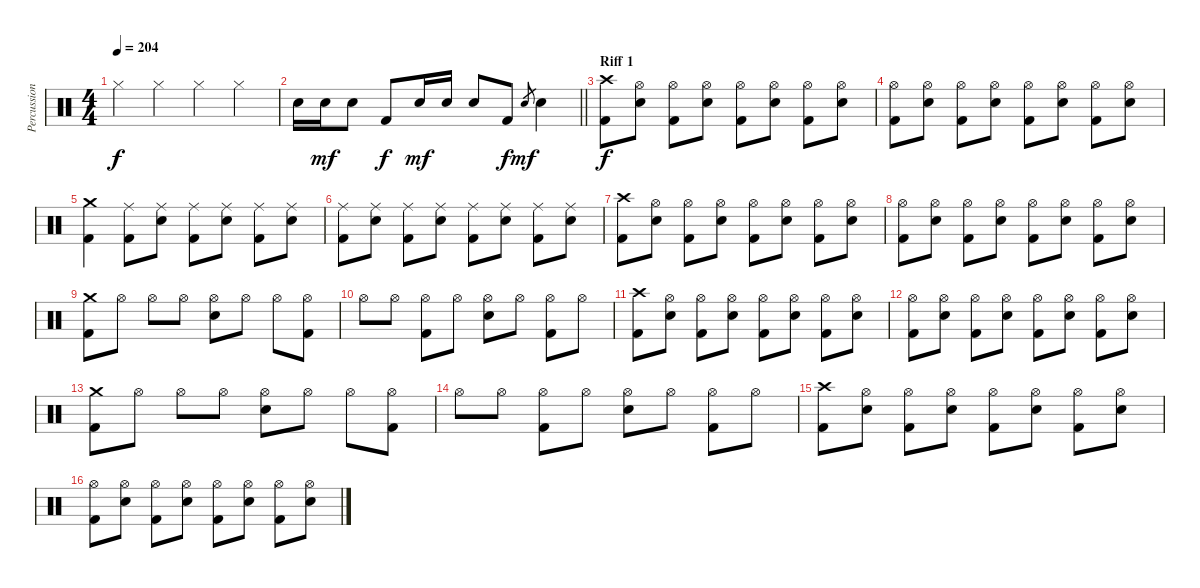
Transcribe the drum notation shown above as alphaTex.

\track ("Percussions" "Percussion") {instrument percussion}
\staff {score}
\articulation defaults
\ts (4 4)
\tempo 204
\clef neutral
\ks c "Hi-Hat (closed)".4{dy f} "Hi-Hat (closed)".4 "Hi-Hat (closed)".4 "Hi-Hat (closed)".4
|
\barLineRight lightlight "Snare (hit) 2".16 "Snare (hit) 2".16{dy mf} "Snare (hit) 2".8 "Kick (hit) 2".8{dy f} "Snare (hit) 2".16{dy mf} "Snare (hit) 2".16 "Snare (hit) 2".8 "Kick (hit) 2".8{dy f} "Snare (hit) 2".8{gr dy mf} "Snare (hit) 2".4
|
\section ("" "Riff 1")
("Crash high (hit)" "Kick (hit) 2").8{dy f} ("Hi-Hat (open)" "Electric Snare (hit)").8 ("Hi-Hat (open)" "Kick (hit) 2").8 ("Hi-Hat (open)" "Electric Snare (hit)").8 ("Hi-Hat (open)" "Kick (hit) 2").8 ("Hi-Hat (open)" "Electric Snare (hit)").8 ("Hi-Hat (open)" "Kick (hit) 2").8 ("Hi-Hat (open)" "Electric Snare (hit)").8 |
("Hi-Hat (open)" "Kick (hit) 2").8 ("Hi-Hat (open)" "Electric Snare (hit)").8 ("Hi-Hat (open)" "Kick (hit) 2").8 ("Hi-Hat (open)" "Electric Snare (hit)").8 ("Hi-Hat (open)" "Kick (hit) 2").8 ("Hi-Hat (open)" "Electric Snare (hit)").8 ("Hi-Hat (open)" "Kick (hit) 2").8 ("Hi-Hat (open)" "Electric Snare (hit)").8 |
("Crash medium (hit)" "Kick (hit) 2").4 ("Ride (middle)" "Kick (hit) 2").8 ("Ride (middle)" "Electric Snare (hit)").8 ("Ride (middle)" "Kick (hit) 2").8 ("Ride (middle)" "Electric Snare (hit)").8 ("Ride (middle)" "Kick (hit) 2").8 ("Ride (middle)" "Electric Snare (hit)").8 |
("Ride (middle)" "Kick (hit) 2").8 ("Ride (middle)" "Electric Snare (hit)").8 ("Ride (middle)" "Kick (hit) 2").8 ("Ride (middle)" "Electric Snare (hit)").8 ("Ride (middle)" "Kick (hit) 2").8 ("Ride (middle)" "Electric Snare (hit)").8 ("Ride (middle)" "Kick (hit) 2").8 ("Ride (middle)" "Electric Snare (hit)").8 |
("Crash high (hit)" "Kick (hit) 2").8 ("Hi-Hat (open)" "Electric Snare (hit)").8 ("Hi-Hat (open)" "Kick (hit) 2").8 ("Hi-Hat (open)" "Electric Snare (hit)").8 ("Hi-Hat (open)" "Kick (hit) 2").8 ("Hi-Hat (open)" "Electric Snare (hit)").8 ("Hi-Hat (open)" "Kick (hit) 2").8 ("Hi-Hat (open)" "Electric Snare (hit)").8 |
("Hi-Hat (open)" "Kick (hit) 2").8 ("Hi-Hat (open)" "Electric Snare (hit)").8 ("Hi-Hat (open)" "Kick (hit) 2").8 ("Hi-Hat (open)" "Electric Snare (hit)").8 ("Hi-Hat (open)" "Kick (hit) 2").8 ("Hi-Hat (open)" "Electric Snare (hit)").8 ("Hi-Hat (open)" "Kick (hit) 2").8 ("Hi-Hat (open)" "Electric Snare (hit)").8 |
("Crash medium (hit)" "Kick (hit) 2").8 "Hi-Hat (open)".8 "Hi-Hat (open)".8 "Hi-Hat (open)".8 ("Hi-Hat (open)" "Electric Snare (hit)").8 "Hi-Hat (open)".8 "Hi-Hat (open)".8 ("Hi-Hat (open)" "Kick (hit) 2").8 |
"Hi-Hat (open)".8 "Hi-Hat (open)".8 ("Hi-Hat (open)" "Kick (hit) 2").8 "Hi-Hat (open)".8 ("Hi-Hat (open)" "Electric Snare (hit)").8 "Hi-Hat (open)".8 ("Hi-Hat (open)" "Kick (hit) 2").8 "Hi-Hat (open)".8 |
("Crash high (hit)" "Kick (hit) 2").8 ("Hi-Hat (open)" "Electric Snare (hit)").8 ("Hi-Hat (open)" "Kick (hit) 2").8 ("Hi-Hat (open)" "Electric Snare (hit)").8 ("Hi-Hat (open)" "Kick (hit) 2").8 ("Hi-Hat (open)" "Electric Snare (hit)").8 ("Hi-Hat (open)" "Kick (hit) 2").8 ("Hi-Hat (open)" "Electric Snare (hit)").8 |
("Hi-Hat (open)" "Kick (hit) 2").8 ("Hi-Hat (open)" "Electric Snare (hit)").8 ("Hi-Hat (open)" "Kick (hit) 2").8 ("Hi-Hat (open)" "Electric Snare (hit)").8 ("Hi-Hat (open)" "Kick (hit) 2").8 ("Hi-Hat (open)" "Electric Snare (hit)").8 ("Hi-Hat (open)" "Kick (hit) 2").8 ("Hi-Hat (open)" "Electric Snare (hit)").8 |
("Crash medium (hit)" "Kick (hit) 2").8 "Hi-Hat (open)".8 "Hi-Hat (open)".8 "Hi-Hat (open)".8 ("Hi-Hat (open)" "Electric Snare (hit)").8 "Hi-Hat (open)".8 "Hi-Hat (open)".8 ("Hi-Hat (open)" "Kick (hit) 2").8 |
"Hi-Hat (open)".8 "Hi-Hat (open)".8 ("Hi-Hat (open)" "Kick (hit) 2").8 "Hi-Hat (open)".8 ("Hi-Hat (open)" "Electric Snare (hit)").8 "Hi-Hat (open)".8 ("Hi-Hat (open)" "Kick (hit) 2").8 "Hi-Hat (open)".8 |
("Crash high (hit)" "Kick (hit) 2").8 ("Hi-Hat (open)" "Electric Snare (hit)").8 ("Hi-Hat (open)" "Kick (hit) 2").8 ("Hi-Hat (open)" "Electric Snare (hit)").8 ("Hi-Hat (open)" "Kick (hit) 2").8 ("Hi-Hat (open)" "Electric Snare (hit)").8 ("Hi-Hat (open)" "Kick (hit) 2").8 ("Hi-Hat (open)" "Electric Snare (hit)").8 |
("Hi-Hat (open)" "Kick (hit) 2").8 ("Hi-Hat (open)" "Electric Snare (hit)").8 ("Hi-Hat (open)" "Kick (hit) 2").8 ("Hi-Hat (open)" "Electric Snare (hit)").8 ("Hi-Hat (open)" "Kick (hit) 2").8 ("Hi-Hat (open)" "Electric Snare (hit)").8 ("Hi-Hat (open)" "Kick (hit) 2").8 ("Hi-Hat (open)" "Electric Snare (hit)").8
